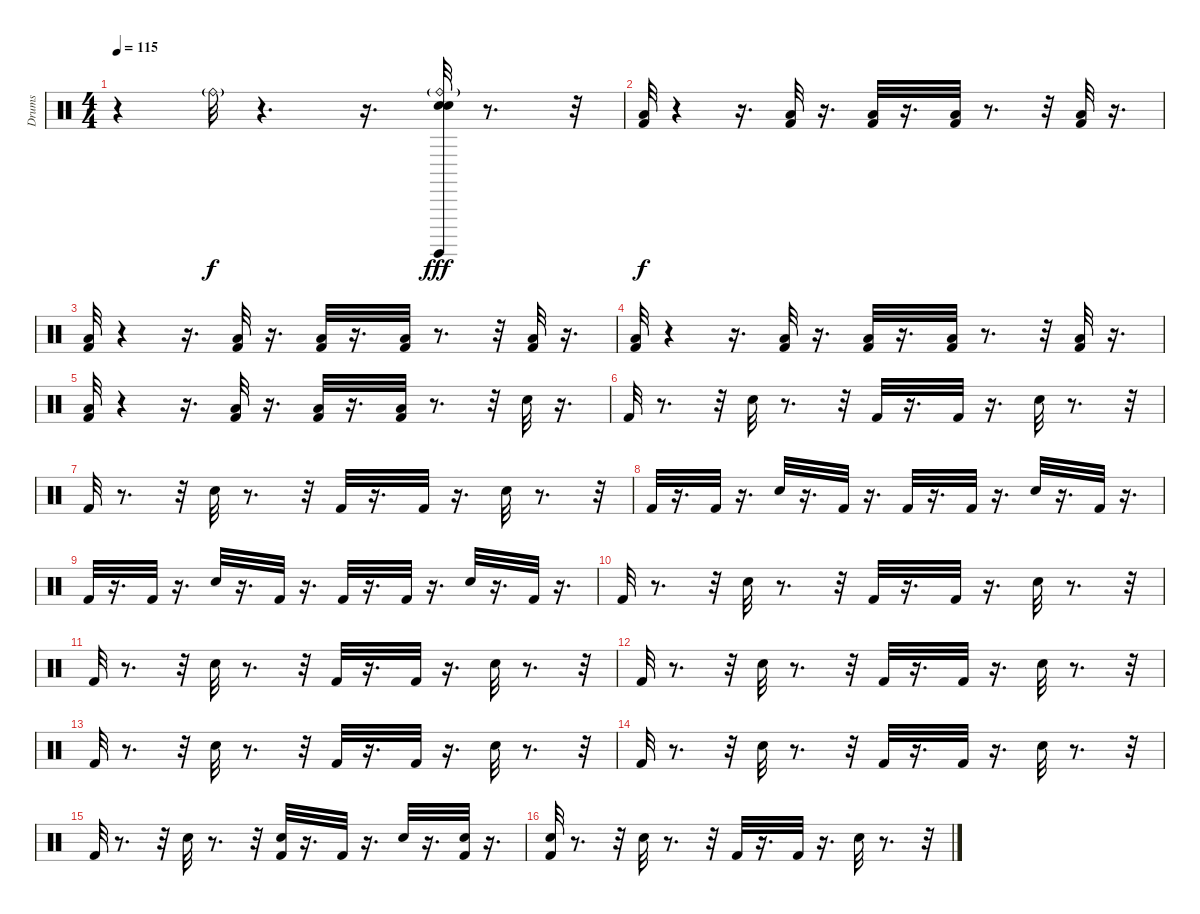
\track ("Drums" "Drums") {instrument percussion}
\staff {score}
\articulation defaults
\ts (4 4)
\tempo 115
\clef neutral
\ks c
r.4{dy f} "Ride (bell)"{g}.32 r.4{d} r.16{d} ("Ride (bell)"{g} "Snare (hit) 2" "Electric Snare (hit)" "Surdo (hit)").32{dy fff} r.8{d} r.32 |
("Low Floor Tom (hit)" "Kick (hit) 2").32{dy f} r.4 r.16{d} ("Kick (hit) 2" "Low Floor Tom (hit)").32 r.16{d} ("Kick (hit) 2" "Low Floor Tom (hit)").32 r.16{d} ("Low Floor Tom (hit)" "Kick (hit) 2").32 r.8{d} r.32 ("Low Floor Tom (hit)" "Kick (hit) 2").32 r.16{d} |
("Low Floor Tom (hit)" "Kick (hit) 2").32 r.4 r.16{d} ("Kick (hit) 2" "Low Floor Tom (hit)").32 r.16{d} ("Kick (hit) 2" "Low Floor Tom (hit)").32 r.16{d} ("Low Floor Tom (hit)" "Kick (hit) 2").32 r.8{d} r.32 ("Low Floor Tom (hit)" "Kick (hit) 2").32 r.16{d} |
("Low Floor Tom (hit)" "Kick (hit) 2").32 r.4 r.16{d} ("Kick (hit) 2" "Low Floor Tom (hit)").32 r.16{d} ("Kick (hit) 2" "Low Floor Tom (hit)").32 r.16{d} ("Low Floor Tom (hit)" "Kick (hit) 2").32 r.8{d} r.32 ("Low Floor Tom (hit)" "Kick (hit) 2").32 r.16{d} |
("Low Floor Tom (hit)" "Kick (hit) 2").32 r.4 r.16{d} ("Kick (hit) 2" "Low Floor Tom (hit)").32 r.16{d} ("Kick (hit) 2" "Low Floor Tom (hit)").32 r.16{d} ("Low Floor Tom (hit)" "Kick (hit) 2").32 r.8{d} r.32 "Snare (hit) 2".32 r.16{d} |
"Kick (hit) 2".32 r.8{d} r.32 "Snare (hit) 2".32 r.8{d} r.32 "Kick (hit) 2".32 r.16{d} "Kick (hit) 2".32 r.16{d} "Snare (hit) 2".32 r.8{d} r.32 |
"Kick (hit) 2".32 r.8{d} r.32 "Snare (hit) 2".32 r.8{d} r.32 "Kick (hit) 2".32 r.16{d} "Kick (hit) 2".32 r.16{d} "Snare (hit) 2".32 r.8{d} r.32 |
"Kick (hit) 2".32 r.16{d} "Kick (hit) 2".32 r.16{d} "Snare (hit) 2".32 r.16{d} "Kick (hit) 2".32 r.16{d} "Kick (hit) 2".32 r.16{d} "Kick (hit) 2".32 r.16{d} "Snare (hit) 2".32 r.16{d} "Kick (hit) 2".32 r.16{d} |
"Kick (hit) 2".32 r.16{d} "Kick (hit) 2".32 r.16{d} "Snare (hit) 2".32 r.16{d} "Kick (hit) 2".32 r.16{d} "Kick (hit) 2".32 r.16{d} "Kick (hit) 2".32 r.16{d} "Snare (hit) 2".32 r.16{d} "Kick (hit) 2".32 r.16{d} |
"Kick (hit) 2".32 r.8{d} r.32 "Snare (hit) 2".32 r.8{d} r.32 "Kick (hit) 2".32 r.16{d} "Kick (hit) 2".32 r.16{d} "Snare (hit) 2".32 r.8{d} r.32 |
"Kick (hit) 2".32 r.8{d} r.32 "Snare (hit) 2".32 r.8{d} r.32 "Kick (hit) 2".32 r.16{d} "Kick (hit) 2".32 r.16{d} "Snare (hit) 2".32 r.8{d} r.32 |
"Kick (hit) 2".32 r.8{d} r.32 "Snare (hit) 2".32 r.8{d} r.32 "Kick (hit) 2".32 r.16{d} "Kick (hit) 2".32 r.16{d} "Snare (hit) 2".32 r.8{d} r.32 |
"Kick (hit) 2".32 r.8{d} r.32 "Snare (hit) 2".32 r.8{d} r.32 "Kick (hit) 2".32 r.16{d} "Kick (hit) 2".32 r.16{d} "Snare (hit) 2".32 r.8{d} r.32 |
"Kick (hit) 2".32 r.8{d} r.32 "Snare (hit) 2".32 r.8{d} r.32 "Kick (hit) 2".32 r.16{d} "Kick (hit) 2".32 r.16{d} "Snare (hit) 2".32 r.8{d} r.32 |
"Kick (hit) 2".32 r.8{d} r.32 "Snare (hit) 2".32 r.8{d} r.32 ("Snare (hit) 2" "Kick (hit) 2").32 r.16{d} "Kick (hit) 2".32 r.16{d} "Snare (hit) 2".32 r.16{d} ("Kick (hit) 2" "Snare (hit) 2").32 r.16{d} |
("Snare (hit) 2" "Kick (hit) 2").32 r.8{d} r.32 "Snare (hit) 2".32 r.8{d} r.32 "Kick (hit) 2".32 r.16{d} "Kick (hit) 2".32 r.16{d} "Snare (hit) 2".32 r.8{d} r.32
